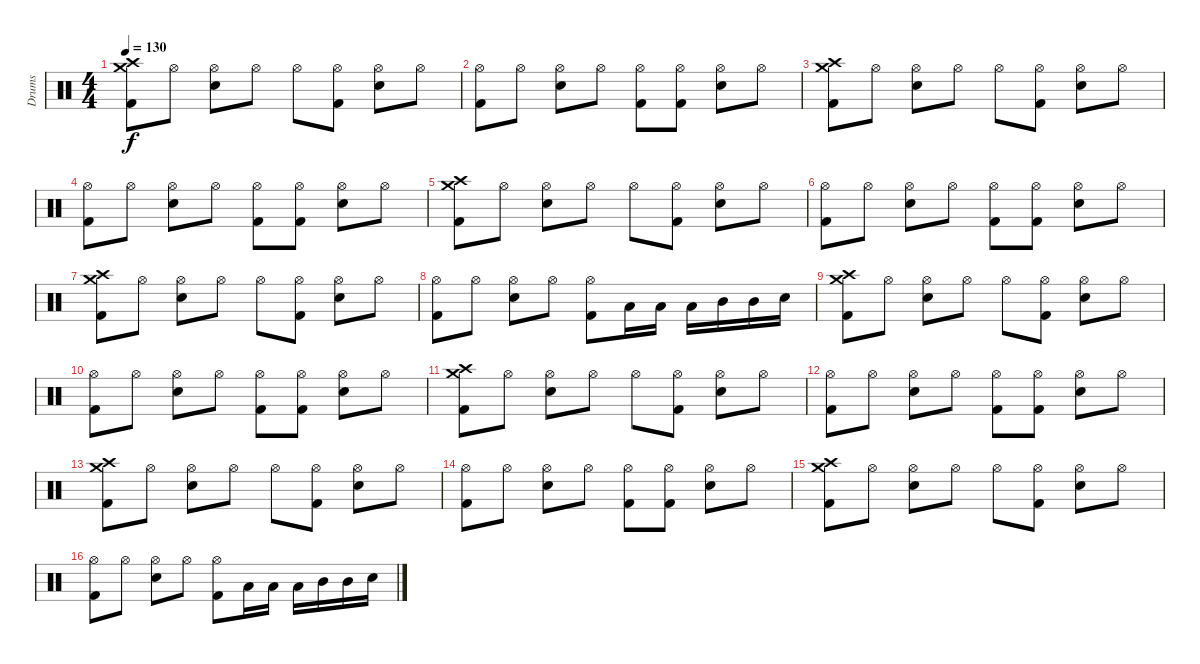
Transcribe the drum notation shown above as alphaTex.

\track ("Drums" "Drums") {instrument percussion}
\staff {score}
\articulation defaults
\ts (4 4)
\tempo 130
\clef neutral
\ks c
("Crash medium (hit)" "Crash high (hit)" "Kick (hit) 2").8{dy f} "Hi-Hat (open)".8 ("Hi-Hat (open)" "Electric Snare (hit)").8 "Hi-Hat (open)".8 "Hi-Hat (open)".8 ("Hi-Hat (open)" "Kick (hit) 2").8 ("Hi-Hat (open)" "Electric Snare (hit)").8 "Hi-Hat (open)".8 |
("Hi-Hat (open)" "Kick (hit) 2").8 "Hi-Hat (open)".8 ("Hi-Hat (open)" "Electric Snare (hit)").8 "Hi-Hat (open)".8 ("Hi-Hat (open)" "Kick (hit) 2").8 ("Hi-Hat (open)" "Kick (hit) 2").8 ("Hi-Hat (open)" "Electric Snare (hit)").8 "Hi-Hat (open)".8 |
("Crash medium (hit)" "Crash high (hit)" "Kick (hit) 2").8 "Hi-Hat (open)".8 ("Hi-Hat (open)" "Electric Snare (hit)").8 "Hi-Hat (open)".8 "Hi-Hat (open)".8 ("Hi-Hat (open)" "Kick (hit) 2").8 ("Hi-Hat (open)" "Electric Snare (hit)").8 "Hi-Hat (open)".8 |
("Hi-Hat (open)" "Kick (hit) 2").8 "Hi-Hat (open)".8 ("Hi-Hat (open)" "Electric Snare (hit)").8 "Hi-Hat (open)".8 ("Hi-Hat (open)" "Kick (hit) 2").8 ("Hi-Hat (open)" "Kick (hit) 2").8 ("Hi-Hat (open)" "Electric Snare (hit)").8 "Hi-Hat (open)".8 |
("Crash medium (hit)" "Crash high (hit)" "Kick (hit) 2").8 "Hi-Hat (open)".8 ("Hi-Hat (open)" "Electric Snare (hit)").8 "Hi-Hat (open)".8 "Hi-Hat (open)".8 ("Hi-Hat (open)" "Kick (hit) 2").8 ("Hi-Hat (open)" "Electric Snare (hit)").8 "Hi-Hat (open)".8 |
("Hi-Hat (open)" "Kick (hit) 2").8 "Hi-Hat (open)".8 ("Hi-Hat (open)" "Electric Snare (hit)").8 "Hi-Hat (open)".8 ("Hi-Hat (open)" "Kick (hit) 2").8 ("Hi-Hat (open)" "Kick (hit) 2").8 ("Hi-Hat (open)" "Electric Snare (hit)").8 "Hi-Hat (open)".8 |
("Crash medium (hit)" "Crash high (hit)" "Kick (hit) 2").8 "Hi-Hat (open)".8 ("Hi-Hat (open)" "Electric Snare (hit)").8 "Hi-Hat (open)".8 "Hi-Hat (open)".8 ("Hi-Hat (open)" "Kick (hit) 2").8 ("Hi-Hat (open)" "Electric Snare (hit)").8 "Hi-Hat (open)".8 |
("Hi-Hat (open)" "Kick (hit) 2").8 "Hi-Hat (open)".8 ("Hi-Hat (open)" "Electric Snare (hit)").8 "Hi-Hat (open)".8 ("Hi-Hat (open)" "Kick (hit) 2").8 "Low Tom (hit)".16 "Low Tom (hit)".16 "Low Tom (hit)".16 "Mid Tom (hit)".16 "Mid Tom (hit)".16 "Electric Snare (hit)".16 |
("Crash medium (hit)" "Crash high (hit)" "Kick (hit) 2").8 "Hi-Hat (open)".8 ("Hi-Hat (open)" "Electric Snare (hit)").8 "Hi-Hat (open)".8 "Hi-Hat (open)".8 ("Hi-Hat (open)" "Kick (hit) 2").8 ("Hi-Hat (open)" "Electric Snare (hit)").8 "Hi-Hat (open)".8 |
("Hi-Hat (open)" "Kick (hit) 2").8 "Hi-Hat (open)".8 ("Hi-Hat (open)" "Electric Snare (hit)").8 "Hi-Hat (open)".8 ("Hi-Hat (open)" "Kick (hit) 2").8 ("Hi-Hat (open)" "Kick (hit) 2").8 ("Hi-Hat (open)" "Electric Snare (hit)").8 "Hi-Hat (open)".8 |
("Crash medium (hit)" "Crash high (hit)" "Kick (hit) 2").8 "Hi-Hat (open)".8 ("Hi-Hat (open)" "Electric Snare (hit)").8 "Hi-Hat (open)".8 "Hi-Hat (open)".8 ("Hi-Hat (open)" "Kick (hit) 2").8 ("Hi-Hat (open)" "Electric Snare (hit)").8 "Hi-Hat (open)".8 |
("Hi-Hat (open)" "Kick (hit) 2").8 "Hi-Hat (open)".8 ("Hi-Hat (open)" "Electric Snare (hit)").8 "Hi-Hat (open)".8 ("Hi-Hat (open)" "Kick (hit) 2").8 ("Hi-Hat (open)" "Kick (hit) 2").8 ("Hi-Hat (open)" "Electric Snare (hit)").8 "Hi-Hat (open)".8 |
("Crash medium (hit)" "Crash high (hit)" "Kick (hit) 2").8 "Hi-Hat (open)".8 ("Hi-Hat (open)" "Electric Snare (hit)").8 "Hi-Hat (open)".8 "Hi-Hat (open)".8 ("Hi-Hat (open)" "Kick (hit) 2").8 ("Hi-Hat (open)" "Electric Snare (hit)").8 "Hi-Hat (open)".8 |
("Hi-Hat (open)" "Kick (hit) 2").8 "Hi-Hat (open)".8 ("Hi-Hat (open)" "Electric Snare (hit)").8 "Hi-Hat (open)".8 ("Hi-Hat (open)" "Kick (hit) 2").8 ("Hi-Hat (open)" "Kick (hit) 2").8 ("Hi-Hat (open)" "Electric Snare (hit)").8 "Hi-Hat (open)".8 |
("Crash medium (hit)" "Crash high (hit)" "Kick (hit) 2").8 "Hi-Hat (open)".8 ("Hi-Hat (open)" "Electric Snare (hit)").8 "Hi-Hat (open)".8 "Hi-Hat (open)".8 ("Hi-Hat (open)" "Kick (hit) 2").8 ("Hi-Hat (open)" "Electric Snare (hit)").8 "Hi-Hat (open)".8 |
("Hi-Hat (open)" "Kick (hit) 2").8 "Hi-Hat (open)".8 ("Hi-Hat (open)" "Electric Snare (hit)").8 "Hi-Hat (open)".8 ("Hi-Hat (open)" "Kick (hit) 2").8 "Low Tom (hit)".16 "Low Tom (hit)".16 "Low Tom (hit)".16 "Mid Tom (hit)".16 "Mid Tom (hit)".16 "Electric Snare (hit)".16
